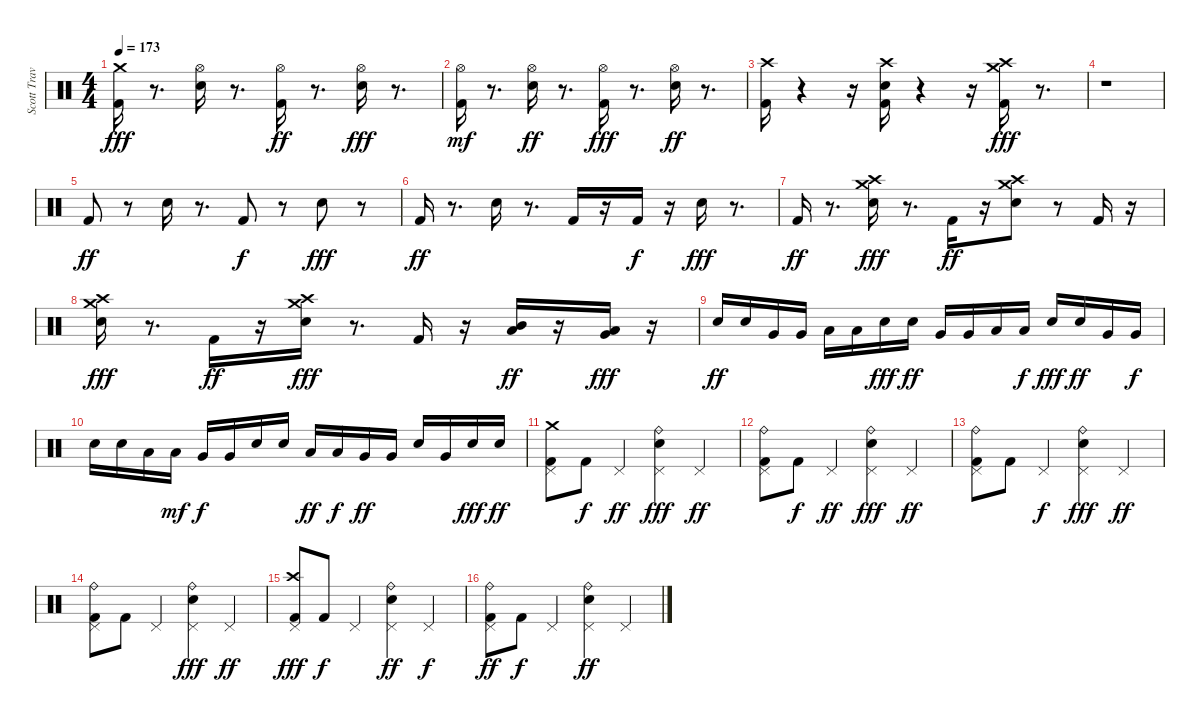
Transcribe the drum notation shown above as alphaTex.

\track ("Scott Travis" "Scott Trav") {instrument percussion}
\staff {score}
\articulation defaults
\ts (4 4)
\tempo 173
\clef neutral
\ks c
("Crash medium (hit)" "Kick (hit) 2").16{dy fff} r.8{d} ("Snare (hit) 2" "Hi-Hat (open)").16 r.8{d} ("Hi-Hat (open)" "Kick (hit) 2").16{dy ff} r.8{d} ("Hi-Hat (open)" "Snare (hit) 2").16{dy fff} r.8{d} |
("Hi-Hat (open)" "Kick (hit) 2").16{dy mf} r.8{d} ("Hi-Hat (open)" "Snare (hit) 2").16{dy ff} r.8{d} ("Kick (hit) 2" "Hi-Hat (open)").16{dy fff} r.8{d} ("Hi-Hat (open)" "Snare (hit) 2").16{dy ff} r.8{d} |
("Crash high (hit)" "Kick (hit) 2").16 r.4 r.16 ("Crash high (hit)" "Kick (hit) 2" "Snare (hit) 2").16 r.4 r.16 ("Crash medium (hit)" "Kick (hit) 2" "Crash high (hit)").16{dy fff} r.8{d} |
r.1 |
"Kick (hit) 2".8{dy ff} r.8 "Snare (hit) 2".16 r.8{d} "Kick (hit) 2".8{dy f} r.8 "Snare (hit) 2".8{dy fff} r.8 |
"Kick (hit) 2".16{dy ff} r.8{d} "Snare (hit) 2".16 r.8{d} "Kick (hit) 2".16 r.16 "Kick (hit) 2".16{dy f} r.16 "Snare (hit) 2".16{dy fff} r.8{d} |
"Kick (hit) 2".16{dy ff} r.8{d} ("Snare (hit) 2" "Crash high (hit)" "Crash medium (hit)").16{dy fff} r.8{d} "Kick (hit) 2".16{dy ff} r.16 ("Snare (hit) 2" "Crash high (hit)" "Crash medium (hit)").8 r.8 "Kick (hit) 2".16 r.16 |
("Snare (hit) 2" "Crash high (hit)" "Crash medium (hit)").16{dy fff} r.8{d} "Kick (hit) 2".16{dy ff} r.16 ("Snare (hit) 2" "Crash medium (hit)" "Crash high (hit)").16{dy fff} r.8{d} "Kick (hit) 2".16 r.16 ("Mid Tom (hit)" "Low Tom (hit)").16{dy ff} r.16 ("Very Low Tom (hit)" "Low Tom (hit)").16{dy fff} r.16 |
"Snare (hit) 2".16{dy ff} "Snare (hit) 2".16 "Very Low Tom (hit)".16 "Very Low Tom (hit)".16 "Low Floor Tom (hit)".16 "Low Floor Tom (hit)".16 "Snare (hit) 2".16{dy fff} "Snare (hit) 2".16{dy ff} "Very Low Tom (hit)".16 "Very Low Tom (hit)".16 "Low Floor Tom (hit)".16 "Low Floor Tom (hit)".16{dy f} "Snare (hit) 2".16{dy fff} "Snare (hit) 2".16{dy ff} "Very Low Tom (hit)".16 "Very Low Tom (hit)".16{dy f} |
"Snare (hit) 2".16 "Snare (hit) 2".16 "Low Tom (hit)".16 "Low Tom (hit)".16{dy mf} "Very Low Tom (hit)".16{dy f} "Very Low Tom (hit)".16 "Snare (hit) 2".16 "Snare (hit) 2".16 "Low Tom (hit)".16{dy ff} "Low Tom (hit)".16{dy f} "Very Low Tom (hit)".16{dy ff} "Very Low Tom (hit)".16 "Snare (hit) 2".16 "Very Low Tom (hit)".16 "Snare (hit) 2".16{dy fff} "Snare (hit) 2".16{dy ff} |
("Pedal Hi-Hat (hit)" "Crash medium (hit)" "Kick (hit) 2").8 "Kick (hit) 2".8{dy f} "Pedal Hi-Hat (hit)".4{dy ff} ("Pedal Hi-Hat (hit)" "Ride (bell)" "Snare (hit) 2").4{dy fff} "Pedal Hi-Hat (hit)".4{dy ff} |
("Pedal Hi-Hat (hit)" "Ride (bell)" "Kick (hit) 2").8 "Kick (hit) 2".8{dy f} "Pedal Hi-Hat (hit)".4{dy ff} ("Pedal Hi-Hat (hit)" "Snare (hit) 2" "Ride (bell)").4{dy fff} "Pedal Hi-Hat (hit)".4{dy ff} |
("Pedal Hi-Hat (hit)" "Kick (hit) 2" "Ride (bell)").8 "Kick (hit) 2".8 "Pedal Hi-Hat (hit)".4{dy f} ("Pedal Hi-Hat (hit)" "Snare (hit) 2" "Ride (bell)").4{dy fff} "Pedal Hi-Hat (hit)".4{dy ff} |
("Pedal Hi-Hat (hit)" "Kick (hit) 2" "Ride (bell)").8 "Kick (hit) 2".8 "Pedal Hi-Hat (hit)".4 ("Pedal Hi-Hat (hit)" "Snare (hit) 2" "Ride (bell)").4{dy fff} "Pedal Hi-Hat (hit)".4{dy ff} |
("Pedal Hi-Hat (hit)" "Kick (hit) 2" "Crash high (hit)").8{dy fff} "Kick (hit) 2".8{dy f} "Pedal Hi-Hat (hit)".4 ("Pedal Hi-Hat (hit)" "Snare (hit) 2" "Ride (bell)").4{dy ff} "Pedal Hi-Hat (hit)".4{dy f} |
("Pedal Hi-Hat (hit)" "Kick (hit) 2" "Ride (bell)").8{dy ff} "Kick (hit) 2".8{dy f} "Pedal Hi-Hat (hit)".4 ("Pedal Hi-Hat (hit)" "Snare (hit) 2" "Ride (bell)").4{dy ff} "Pedal Hi-Hat (hit)".4
